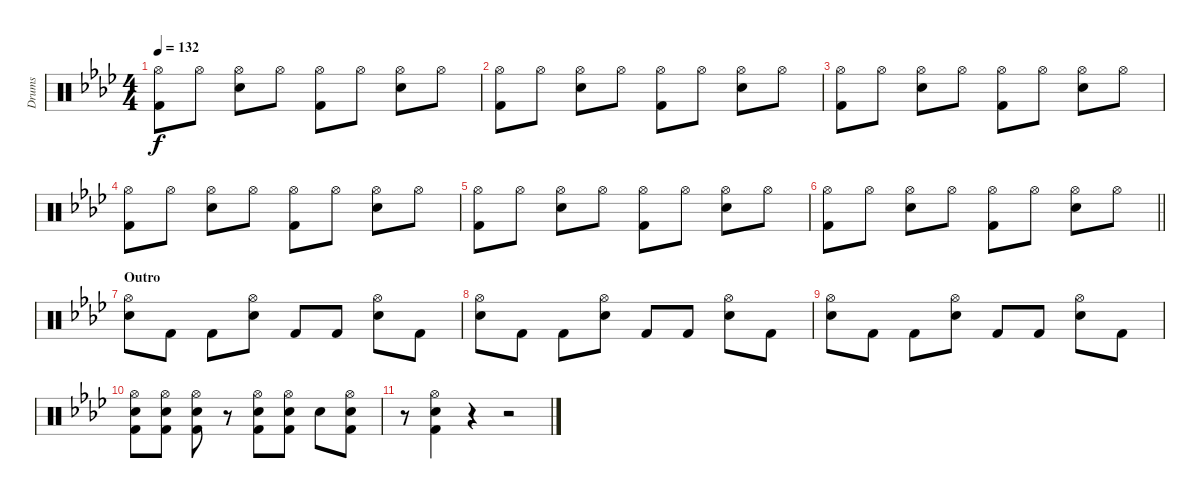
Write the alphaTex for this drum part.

\track ("Drums" "Drums") {instrument percussion}
\staff {score}
\articulation defaults
\ts (4 4)
\tempo 132
\clef neutral
\ks ab
("Hi-Hat (open)" "Kick (hit) 2").8{dy f} "Hi-Hat (open)".8 ("Hi-Hat (open)" "Electric Snare (hit)").8 "Hi-Hat (open)".8 ("Hi-Hat (open)" "Kick (hit) 2").8 "Hi-Hat (open)".8 ("Hi-Hat (open)" "Electric Snare (hit)").8 "Hi-Hat (open)".8 |
("Hi-Hat (open)" "Kick (hit) 2").8 "Hi-Hat (open)".8 ("Hi-Hat (open)" "Electric Snare (hit)").8 "Hi-Hat (open)".8 ("Hi-Hat (open)" "Kick (hit) 2").8 "Hi-Hat (open)".8 ("Hi-Hat (open)" "Electric Snare (hit)").8 "Hi-Hat (open)".8 |
("Hi-Hat (open)" "Kick (hit) 2").8 "Hi-Hat (open)".8 ("Hi-Hat (open)" "Electric Snare (hit)").8 "Hi-Hat (open)".8 ("Hi-Hat (open)" "Kick (hit) 2").8 "Hi-Hat (open)".8 ("Hi-Hat (open)" "Electric Snare (hit)").8 "Hi-Hat (open)".8 |
("Hi-Hat (open)" "Kick (hit) 2").8 "Hi-Hat (open)".8 ("Hi-Hat (open)" "Electric Snare (hit)").8 "Hi-Hat (open)".8 ("Hi-Hat (open)" "Kick (hit) 2").8 "Hi-Hat (open)".8 ("Hi-Hat (open)" "Electric Snare (hit)").8 "Hi-Hat (open)".8 |
("Hi-Hat (open)" "Kick (hit) 2").8 "Hi-Hat (open)".8 ("Hi-Hat (open)" "Electric Snare (hit)").8 "Hi-Hat (open)".8 ("Hi-Hat (open)" "Kick (hit) 2").8 "Hi-Hat (open)".8 ("Hi-Hat (open)" "Electric Snare (hit)").8 "Hi-Hat (open)".8 |
\barLineRight lightlight
("Hi-Hat (open)" "Kick (hit) 2").8 "Hi-Hat (open)".8 ("Hi-Hat (open)" "Electric Snare (hit)").8 "Hi-Hat (open)".8 ("Hi-Hat (open)" "Kick (hit) 2").8 "Hi-Hat (open)".8 ("Hi-Hat (open)" "Electric Snare (hit)").8 "Hi-Hat (open)".8 |
\section ("" "Outro")
("Hi-Hat (open)" "Electric Snare (hit)").8 "Kick (hit) 2".8 "Kick (hit) 2".8 ("Hi-Hat (open)" "Electric Snare (hit)").8 "Kick (hit) 2".8 "Kick (hit) 2".8 ("Hi-Hat (open)" "Electric Snare (hit)").8 "Kick (hit) 2".8 |
("Hi-Hat (open)" "Electric Snare (hit)").8 "Kick (hit) 2".8 "Kick (hit) 2".8 ("Hi-Hat (open)" "Electric Snare (hit)").8 "Kick (hit) 2".8 "Kick (hit) 2".8 ("Hi-Hat (open)" "Electric Snare (hit)").8 "Kick (hit) 2".8 |
("Hi-Hat (open)" "Electric Snare (hit)").8 "Kick (hit) 2".8 "Kick (hit) 2".8 ("Hi-Hat (open)" "Electric Snare (hit)").8 "Kick (hit) 2".8 "Kick (hit) 2".8 ("Hi-Hat (open)" "Electric Snare (hit)").8 "Kick (hit) 2".8 |
("Hi-Hat (open)" "Electric Snare (hit)" "Kick (hit) 2").8 ("Hi-Hat (open)" "Electric Snare (hit)" "Kick (hit) 2").8 ("Hi-Hat (open)" "Electric Snare (hit)" "Kick (hit) 2").8 r.8 ("Hi-Hat (open)" "Electric Snare (hit)" "Kick (hit) 2").8 ("Hi-Hat (open)" "Electric Snare (hit)" "Kick (hit) 2").8 "Electric Snare (hit)".8 ("Hi-Hat (open)" "Electric Snare (hit)" "Kick (hit) 2").8 |
r.8 ("Hi-Hat (open)" "Electric Snare (hit)" "Kick (hit) 2").4 r.4 r.2
